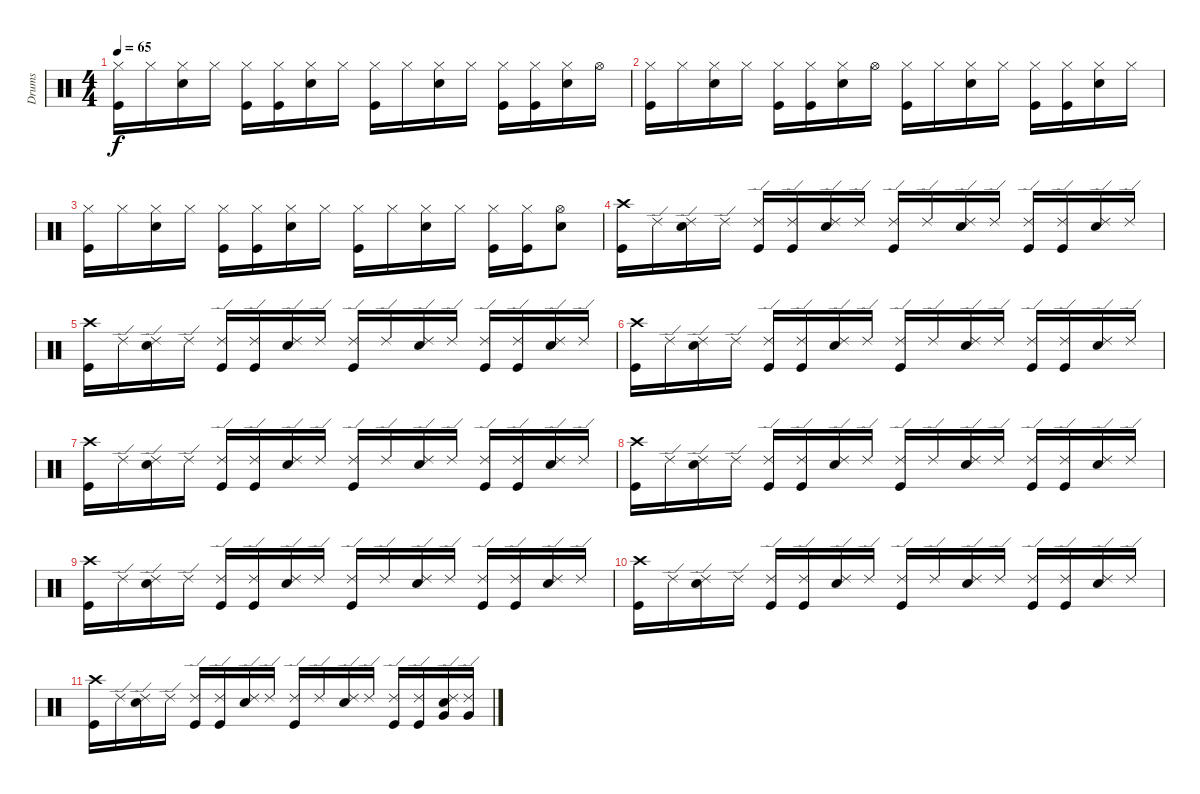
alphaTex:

\track ("Drums" "Drums") {instrument percussion}
\staff {score}
\articulation defaults
\ts (4 4)
\tempo 65
\clef neutral
\ks c
("Hi-Hat (closed)" "Kick (hit)").16{dy f} "Hi-Hat (closed)".16 ("Hi-Hat (closed)" "Snare (hit) 2").16 "Hi-Hat (closed)".16 ("Hi-Hat (closed)" "Kick (hit)").16 ("Hi-Hat (closed)" "Kick (hit)").16 ("Hi-Hat (closed)" "Snare (hit) 2").16 "Hi-Hat (closed)".16 ("Hi-Hat (closed)" "Kick (hit)").16 "Hi-Hat (closed)".16 ("Hi-Hat (closed)" "Snare (hit) 2").16 "Hi-Hat (closed)".16 ("Hi-Hat (closed)" "Kick (hit)").16 ("Hi-Hat (closed)" "Kick (hit)").16 ("Hi-Hat (closed)" "Snare (hit) 2").16 "Hi-Hat (open)".16 |
("Hi-Hat (closed)" "Kick (hit)").16 "Hi-Hat (closed)".16 ("Hi-Hat (closed)" "Snare (hit) 2").16 "Hi-Hat (closed)".16 ("Hi-Hat (closed)" "Kick (hit)").16 ("Hi-Hat (closed)" "Kick (hit)").16 ("Hi-Hat (closed)" "Snare (hit) 2").16 "Hi-Hat (open)".16 ("Hi-Hat (closed)" "Kick (hit)").16 "Hi-Hat (closed)".16 ("Hi-Hat (closed)" "Snare (hit) 2").16 "Hi-Hat (closed)".16 ("Hi-Hat (closed)" "Kick (hit)").16 ("Hi-Hat (closed)" "Kick (hit)").16 ("Hi-Hat (closed)" "Snare (hit) 2").16 "Hi-Hat (closed)".16 |
("Hi-Hat (closed)" "Kick (hit)").16 "Hi-Hat (closed)".16 ("Hi-Hat (closed)" "Snare (hit) 2").16 "Hi-Hat (closed)".16 ("Hi-Hat (closed)" "Kick (hit)").16 ("Hi-Hat (closed)" "Kick (hit)").16 ("Hi-Hat (closed)" "Snare (hit) 2").16 "Hi-Hat (closed)".16 ("Hi-Hat (closed)" "Kick (hit)").16 "Hi-Hat (closed)".16 ("Hi-Hat (closed)" "Snare (hit) 2").16 "Hi-Hat (closed)".16 ("Hi-Hat (closed)" "Kick (hit)").16 ("Hi-Hat (closed)" "Kick (hit)").16 ("Hi-Hat (open)" "Snare (hit) 2").8 |
("Crash high (hit)" "Kick (hit)").16 "Ride (edge) 2".16 ("Ride (edge) 2" "Snare (hit) 2").16 "Ride (edge) 2".16 ("Ride (edge) 2" "Kick (hit)").16 ("Ride (edge) 2" "Kick (hit)").16 ("Ride (edge) 2" "Snare (hit) 2").16 "Ride (edge) 2".16 ("Ride (edge) 2" "Kick (hit)").16 "Ride (edge) 2".16 ("Ride (edge) 2" "Snare (hit) 2").16 "Ride (edge) 2".16 ("Ride (edge) 2" "Kick (hit)").16 ("Ride (edge) 2" "Kick (hit)").16 ("Ride (edge) 2" "Snare (hit) 2").16 "Ride (edge) 2".16 |
("Crash high (hit)" "Kick (hit)").16 "Ride (edge) 2".16 ("Ride (edge) 2" "Snare (hit) 2").16 "Ride (edge) 2".16 ("Ride (edge) 2" "Kick (hit)").16 ("Ride (edge) 2" "Kick (hit)").16 ("Ride (edge) 2" "Snare (hit) 2").16 "Ride (edge) 2".16 ("Ride (edge) 2" "Kick (hit)").16 "Ride (edge) 2".16 ("Ride (edge) 2" "Snare (hit) 2").16 "Ride (edge) 2".16 ("Ride (edge) 2" "Kick (hit)").16 ("Ride (edge) 2" "Kick (hit)").16 ("Ride (edge) 2" "Snare (hit) 2").16 "Ride (edge) 2".16 |
("Crash high (hit)" "Kick (hit)").16 "Ride (edge) 2".16 ("Ride (edge) 2" "Snare (hit) 2").16 "Ride (edge) 2".16 ("Ride (edge) 2" "Kick (hit)").16 ("Ride (edge) 2" "Kick (hit)").16 ("Ride (edge) 2" "Snare (hit) 2").16 "Ride (edge) 2".16 ("Ride (edge) 2" "Kick (hit)").16 "Ride (edge) 2".16 ("Ride (edge) 2" "Snare (hit) 2").16 "Ride (edge) 2".16 ("Ride (edge) 2" "Kick (hit)").16 ("Ride (edge) 2" "Kick (hit)").16 ("Ride (edge) 2" "Snare (hit) 2").16 "Ride (edge) 2".16 |
("Crash high (hit)" "Kick (hit)").16 "Ride (edge) 2".16 ("Ride (edge) 2" "Snare (hit) 2").16 "Ride (edge) 2".16 ("Ride (edge) 2" "Kick (hit)").16 ("Ride (edge) 2" "Kick (hit)").16 ("Ride (edge) 2" "Snare (hit) 2").16 "Ride (edge) 2".16 ("Ride (edge) 2" "Kick (hit)").16 "Ride (edge) 2".16 ("Ride (edge) 2" "Snare (hit) 2").16 "Ride (edge) 2".16 ("Ride (edge) 2" "Kick (hit)").16 ("Ride (edge) 2" "Kick (hit)").16 ("Ride (edge) 2" "Snare (hit) 2").16 "Ride (edge) 2".16 |
("Crash high (hit)" "Kick (hit)").16 "Ride (edge) 2".16 ("Ride (edge) 2" "Snare (hit) 2").16 "Ride (edge) 2".16 ("Ride (edge) 2" "Kick (hit)").16 ("Ride (edge) 2" "Kick (hit)").16 ("Ride (edge) 2" "Snare (hit) 2").16 "Ride (edge) 2".16 ("Ride (edge) 2" "Kick (hit)").16 "Ride (edge) 2".16 ("Ride (edge) 2" "Snare (hit) 2").16 "Ride (edge) 2".16 ("Ride (edge) 2" "Kick (hit)").16 ("Ride (edge) 2" "Kick (hit)").16 ("Ride (edge) 2" "Snare (hit) 2").16 "Ride (edge) 2".16 |
("Crash high (hit)" "Kick (hit)").16 "Ride (edge) 2".16 ("Ride (edge) 2" "Snare (hit) 2").16 "Ride (edge) 2".16 ("Ride (edge) 2" "Kick (hit)").16 ("Ride (edge) 2" "Kick (hit)").16 ("Ride (edge) 2" "Snare (hit) 2").16 "Ride (edge) 2".16 ("Ride (edge) 2" "Kick (hit)").16 "Ride (edge) 2".16 ("Ride (edge) 2" "Snare (hit) 2").16 "Ride (edge) 2".16 ("Ride (edge) 2" "Kick (hit)").16 ("Ride (edge) 2" "Kick (hit)").16 ("Ride (edge) 2" "Snare (hit) 2").16 "Ride (edge) 2".16 |
("Crash high (hit)" "Kick (hit)").16 "Ride (edge) 2".16 ("Ride (edge) 2" "Snare (hit) 2").16 "Ride (edge) 2".16 ("Ride (edge) 2" "Kick (hit)").16 ("Ride (edge) 2" "Kick (hit)").16 ("Ride (edge) 2" "Snare (hit) 2").16 "Ride (edge) 2".16 ("Ride (edge) 2" "Kick (hit)").16 "Ride (edge) 2".16 ("Ride (edge) 2" "Snare (hit) 2").16 "Ride (edge) 2".16 ("Ride (edge) 2" "Kick (hit)").16 ("Ride (edge) 2" "Kick (hit)").16 ("Ride (edge) 2" "Snare (hit) 2").16 "Ride (edge) 2".16 |
("Crash high (hit)" "Kick (hit)").16 "Ride (edge) 2".16 ("Ride (edge) 2" "Snare (hit) 2").16 "Ride (edge) 2".16 ("Ride (edge) 2" "Kick (hit)").16 ("Ride (edge) 2" "Kick (hit)").16 ("Ride (edge) 2" "Snare (hit) 2").16 "Ride (edge) 2".16 ("Ride (edge) 2" "Kick (hit)").16 "Ride (edge) 2".16 ("Ride (edge) 2" "Snare (hit) 2").16 "Ride (edge) 2".16 ("Ride (edge) 2" "Kick (hit)").16 ("Ride (edge) 2" "Kick (hit)").16 ("Ride (edge) 2" "Snare (hit) 2" "Very Low Tom (hit)").16 ("Ride (edge) 2" "Very Low Tom (hit)").16
